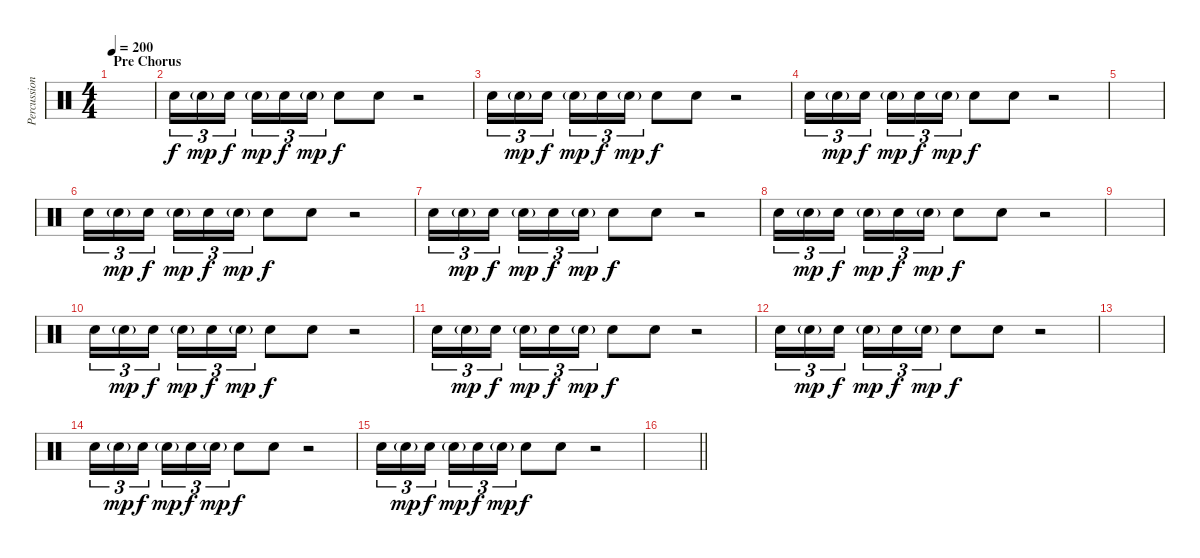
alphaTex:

\track ("Percussion" "Percussion") {instrument percussion}
\staff {score}
\articulation defaults
\ts (4 4)
\section ("" "Pre Chorus")
\tempo 200
\clef neutral
\ks c
|
"Snare (hit) 2".16{tu (3 2)} "Snare (hit) 2"{g}.16{tu (3 2) dy mp} "Snare (hit) 2".16{tu (3 2) dy f beam splitsecondary} "Snare (hit) 2"{g}.16{tu (3 2) dy mp} "Snare (hit) 2".16{tu (3 2) dy f} "Snare (hit) 2"{g}.16{tu (3 2) dy mp} "Snare (hit) 2".8{dy f} "Snare (hit) 2".8 r.2 |
"Snare (hit) 2".16{tu (3 2)} "Snare (hit) 2"{g}.16{tu (3 2) dy mp} "Snare (hit) 2".16{tu (3 2) dy f beam splitsecondary} "Snare (hit) 2"{g}.16{tu (3 2) dy mp} "Snare (hit) 2".16{tu (3 2) dy f} "Snare (hit) 2"{g}.16{tu (3 2) dy mp} "Snare (hit) 2".8{dy f} "Snare (hit) 2".8 r.2 |
"Snare (hit) 2".16{tu (3 2)} "Snare (hit) 2"{g}.16{tu (3 2) dy mp} "Snare (hit) 2".16{tu (3 2) dy f beam splitsecondary} "Snare (hit) 2"{g}.16{tu (3 2) dy mp} "Snare (hit) 2".16{tu (3 2) dy f} "Snare (hit) 2"{g}.16{tu (3 2) dy mp} "Snare (hit) 2".8{dy f} "Snare (hit) 2".8 r.2 |
|
"Snare (hit) 2".16{tu (3 2)} "Snare (hit) 2"{g}.16{tu (3 2) dy mp} "Snare (hit) 2".16{tu (3 2) dy f beam splitsecondary} "Snare (hit) 2"{g}.16{tu (3 2) dy mp} "Snare (hit) 2".16{tu (3 2) dy f} "Snare (hit) 2"{g}.16{tu (3 2) dy mp} "Snare (hit) 2".8{dy f} "Snare (hit) 2".8 r.2 |
"Snare (hit) 2".16{tu (3 2)} "Snare (hit) 2"{g}.16{tu (3 2) dy mp} "Snare (hit) 2".16{tu (3 2) dy f beam splitsecondary} "Snare (hit) 2"{g}.16{tu (3 2) dy mp} "Snare (hit) 2".16{tu (3 2) dy f} "Snare (hit) 2"{g}.16{tu (3 2) dy mp} "Snare (hit) 2".8{dy f} "Snare (hit) 2".8 r.2 |
"Snare (hit) 2".16{tu (3 2)} "Snare (hit) 2"{g}.16{tu (3 2) dy mp} "Snare (hit) 2".16{tu (3 2) dy f beam splitsecondary} "Snare (hit) 2"{g}.16{tu (3 2) dy mp} "Snare (hit) 2".16{tu (3 2) dy f} "Snare (hit) 2"{g}.16{tu (3 2) dy mp} "Snare (hit) 2".8{dy f} "Snare (hit) 2".8 r.2 |
|
"Snare (hit) 2".16{tu (3 2)} "Snare (hit) 2"{g}.16{tu (3 2) dy mp} "Snare (hit) 2".16{tu (3 2) dy f beam splitsecondary} "Snare (hit) 2"{g}.16{tu (3 2) dy mp} "Snare (hit) 2".16{tu (3 2) dy f} "Snare (hit) 2"{g}.16{tu (3 2) dy mp} "Snare (hit) 2".8{dy f} "Snare (hit) 2".8 r.2 |
"Snare (hit) 2".16{tu (3 2)} "Snare (hit) 2"{g}.16{tu (3 2) dy mp} "Snare (hit) 2".16{tu (3 2) dy f beam splitsecondary} "Snare (hit) 2"{g}.16{tu (3 2) dy mp} "Snare (hit) 2".16{tu (3 2) dy f} "Snare (hit) 2"{g}.16{tu (3 2) dy mp} "Snare (hit) 2".8{dy f} "Snare (hit) 2".8 r.2 |
"Snare (hit) 2".16{tu (3 2)} "Snare (hit) 2"{g}.16{tu (3 2) dy mp} "Snare (hit) 2".16{tu (3 2) dy f beam splitsecondary} "Snare (hit) 2"{g}.16{tu (3 2) dy mp} "Snare (hit) 2".16{tu (3 2) dy f} "Snare (hit) 2"{g}.16{tu (3 2) dy mp} "Snare (hit) 2".8{dy f} "Snare (hit) 2".8 r.2 |
|
"Snare (hit) 2".16{tu (3 2)} "Snare (hit) 2"{g}.16{tu (3 2) dy mp} "Snare (hit) 2".16{tu (3 2) dy f beam splitsecondary} "Snare (hit) 2"{g}.16{tu (3 2) dy mp} "Snare (hit) 2".16{tu (3 2) dy f} "Snare (hit) 2"{g}.16{tu (3 2) dy mp} "Snare (hit) 2".8{dy f} "Snare (hit) 2".8 r.2 |
"Snare (hit) 2".16{tu (3 2)} "Snare (hit) 2"{g}.16{tu (3 2) dy mp} "Snare (hit) 2".16{tu (3 2) dy f beam splitsecondary} "Snare (hit) 2"{g}.16{tu (3 2) dy mp} "Snare (hit) 2".16{tu (3 2) dy f} "Snare (hit) 2"{g}.16{tu (3 2) dy mp} "Snare (hit) 2".8{dy f} "Snare (hit) 2".8 r.2 |
\barLineRight lightlight
